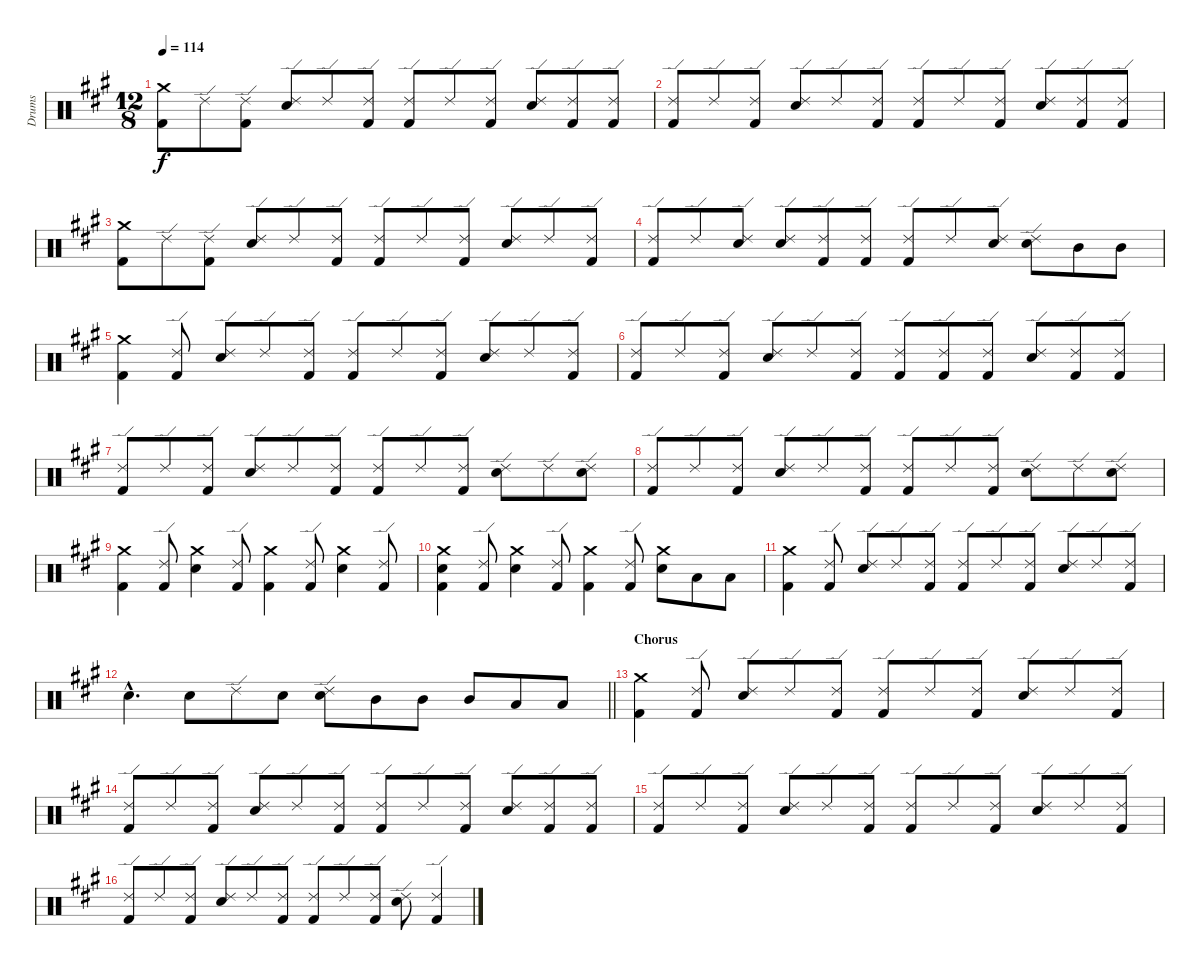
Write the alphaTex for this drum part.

\track ("Drums" "Drums") {instrument percussion}
\staff {score}
\articulation defaults
\ts (12 8)
\tempo 114
\clef neutral
\ks a
("Crash medium (hit)" "Kick (hit) 2").8{dy f} "Ride (edge) 2".8 ("Ride (edge) 2" "Kick (hit) 2").8 ("Ride (edge) 2" "Snare (hit) 2").8 "Ride (edge) 2".8 ("Ride (edge) 2" "Kick (hit) 2").8 ("Ride (edge) 2" "Kick (hit) 2").8 "Ride (edge) 2".8 ("Ride (edge) 2" "Kick (hit) 2").8 ("Ride (edge) 2" "Snare (hit) 2").8 ("Ride (edge) 2" "Kick (hit) 2").8 ("Ride (edge) 2" "Kick (hit) 2").8 |
("Ride (edge) 2" "Kick (hit) 2").8 "Ride (edge) 2".8 ("Ride (edge) 2" "Kick (hit) 2").8 ("Ride (edge) 2" "Snare (hit) 2").8 "Ride (edge) 2".8 ("Ride (edge) 2" "Kick (hit) 2").8 ("Ride (edge) 2" "Kick (hit) 2").8 "Ride (edge) 2".8 ("Ride (edge) 2" "Kick (hit) 2").8 ("Ride (edge) 2" "Snare (hit) 2").8 ("Ride (edge) 2" "Kick (hit) 2").8 ("Ride (edge) 2" "Kick (hit) 2").8 |
("Crash medium (hit)" "Kick (hit) 2").8 "Ride (edge) 2".8 ("Ride (edge) 2" "Kick (hit) 2").8 ("Ride (edge) 2" "Snare (hit) 2").8 "Ride (edge) 2".8 ("Ride (edge) 2" "Kick (hit) 2").8 ("Ride (edge) 2" "Kick (hit) 2").8 "Ride (edge) 2".8 ("Ride (edge) 2" "Kick (hit) 2").8 ("Ride (edge) 2" "Snare (hit) 2").8 "Ride (edge) 2".8 ("Ride (edge) 2" "Kick (hit) 2").8 |
("Ride (edge) 2" "Kick (hit) 2").8 "Ride (edge) 2".8 ("Ride (edge) 2" "Snare (hit) 2").8 ("Ride (edge) 2" "Snare (hit) 2").8 ("Ride (edge) 2" "Kick (hit) 2").8 ("Ride (edge) 2" "Kick (hit) 2").8 ("Ride (edge) 2" "Kick (hit) 2").8 "Ride (edge) 2".8 ("Ride (edge) 2" "Snare (hit) 2").8 ("Ride (edge) 2" "Snare (hit) 2").8 "Mid Tom (hit)".8 "Mid Tom (hit)".8 |
("Crash medium (hit)" "Kick (hit) 2").4 ("Ride (edge) 2" "Kick (hit) 2").8 ("Ride (edge) 2" "Snare (hit) 2").8 "Ride (edge) 2".8 ("Ride (edge) 2" "Kick (hit) 2").8 ("Ride (edge) 2" "Kick (hit) 2").8 "Ride (edge) 2".8 ("Ride (edge) 2" "Kick (hit) 2").8 ("Ride (edge) 2" "Snare (hit) 2").8 "Ride (edge) 2".8 ("Ride (edge) 2" "Kick (hit) 2").8 |
("Ride (edge) 2" "Kick (hit) 2").8 "Ride (edge) 2".8 ("Ride (edge) 2" "Kick (hit) 2").8 ("Ride (edge) 2" "Snare (hit) 2").8 "Ride (edge) 2".8 ("Ride (edge) 2" "Kick (hit) 2").8 ("Ride (edge) 2" "Kick (hit) 2").8 ("Ride (edge) 2" "Kick (hit) 2").8 ("Ride (edge) 2" "Kick (hit) 2").8 ("Ride (edge) 2" "Snare (hit) 2").8 ("Ride (edge) 2" "Kick (hit) 2").8 ("Ride (edge) 2" "Kick (hit) 2").8 |
("Ride (edge) 2" "Kick (hit) 2").8 "Ride (edge) 2".8 ("Ride (edge) 2" "Kick (hit) 2").8 ("Ride (edge) 2" "Snare (hit) 2").8 "Ride (edge) 2".8 ("Ride (edge) 2" "Kick (hit) 2").8 ("Ride (edge) 2" "Kick (hit) 2").8 "Ride (edge) 2".8 ("Ride (edge) 2" "Kick (hit) 2").8 ("Ride (edge) 2" "Snare (hit) 2").8 "Ride (edge) 2".8 ("Ride (edge) 2" "Snare (hit) 2").8 |
("Ride (edge) 2" "Kick (hit) 2").8 "Ride (edge) 2".8 ("Ride (edge) 2" "Kick (hit) 2").8 ("Ride (edge) 2" "Snare (hit) 2").8 "Ride (edge) 2".8 ("Ride (edge) 2" "Kick (hit) 2").8 ("Ride (edge) 2" "Kick (hit) 2").8 "Ride (edge) 2".8 ("Ride (edge) 2" "Kick (hit) 2").8 ("Ride (edge) 2" "Snare (hit) 2").8 "Ride (edge) 2".8 ("Ride (edge) 2" "Snare (hit) 2").8 |
("Crash medium (hit)" "Kick (hit) 2").4 ("Ride (edge) 2" "Kick (hit) 2").8 ("Crash medium (hit)" "Snare (hit) 2").4 ("Ride (edge) 2" "Kick (hit) 2").8 ("Crash medium (hit)" "Kick (hit) 2").4 ("Ride (edge) 2" "Kick (hit) 2").8 ("Crash medium (hit)" "Snare (hit) 2").4 ("Ride (edge) 2" "Kick (hit) 2").8 |
("Crash medium (hit)" "Snare (hit) 2" "Kick (hit) 2").4 ("Ride (edge) 2" "Kick (hit) 2").8 ("Crash medium (hit)" "Snare (hit) 2").4 ("Ride (edge) 2" "Kick (hit) 2").8 ("Crash medium (hit)" "Kick (hit) 2").4 ("Ride (edge) 2" "Kick (hit) 2").8 ("Crash medium (hit)" "Snare (hit) 2").8 "Low Tom (hit)".8 "Low Tom (hit)".8 |
("Crash medium (hit)" "Kick (hit) 2").4 ("Ride (edge) 2" "Kick (hit) 2").8 ("Ride (edge) 2" "Snare (hit) 2").8 "Ride (edge) 2".8 ("Ride (edge) 2" "Kick (hit) 2").8 ("Ride (edge) 2" "Kick (hit) 2").8 "Ride (edge) 2".8 ("Ride (edge) 2" "Kick (hit) 2").8 ("Ride (edge) 2" "Snare (hit) 2").8 "Ride (edge) 2".8 ("Ride (edge) 2" "Kick (hit) 2").8 |
\barLineRight lightlight "Snare (hit) 2"{hac}.4{d} "Snare (hit) 2".8 "Ride (edge) 2".8 "Snare (hit) 2".8
("Ride (edge) 2" "Snare (hit) 2").8 "Mid Tom (hit)".8 "Mid Tom (hit)".8 "Mid Tom (hit)".8 "Low Tom (hit)".8 "Low Tom (hit)".8 |
\section ("" "Chorus")
("Crash medium (hit)" "Kick (hit) 2").4 ("Ride (edge) 2" "Kick (hit) 2").8 ("Ride (edge) 2" "Snare (hit) 2").8 "Ride (edge) 2".8 ("Ride (edge) 2" "Kick (hit) 2").8 ("Ride (edge) 2" "Kick (hit) 2").8 "Ride (edge) 2".8 ("Ride (edge) 2" "Kick (hit) 2").8 ("Ride (edge) 2" "Snare (hit) 2").8 "Ride (edge) 2".8 ("Ride (edge) 2" "Kick (hit) 2").8 |
("Ride (edge) 2" "Kick (hit) 2").8 "Ride (edge) 2".8 ("Ride (edge) 2" "Kick (hit) 2").8 ("Ride (edge) 2" "Snare (hit) 2").8 "Ride (edge) 2".8 ("Ride (edge) 2" "Kick (hit) 2").8 ("Ride (edge) 2" "Kick (hit) 2").8 "Ride (edge) 2".8 ("Ride (edge) 2" "Kick (hit) 2").8 ("Ride (edge) 2" "Snare (hit) 2").8 ("Ride (edge) 2" "Kick (hit) 2").8 ("Ride (edge) 2" "Kick (hit) 2").8 |
("Ride (edge) 2" "Kick (hit) 2").8 "Ride (edge) 2".8 ("Ride (edge) 2" "Kick (hit) 2").8 ("Ride (edge) 2" "Snare (hit) 2").8 "Ride (edge) 2".8 ("Ride (edge) 2" "Kick (hit) 2").8 ("Ride (edge) 2" "Kick (hit) 2").8 "Ride (edge) 2".8 ("Ride (edge) 2" "Kick (hit) 2").8 ("Ride (edge) 2" "Snare (hit) 2").8 "Ride (edge) 2".8 ("Ride (edge) 2" "Kick (hit) 2").8 |
("Ride (edge) 2" "Kick (hit) 2").8 "Ride (edge) 2".8 ("Ride (edge) 2" "Kick (hit) 2").8 ("Ride (edge) 2" "Snare (hit) 2").8 "Ride (edge) 2".8 ("Ride (edge) 2" "Kick (hit) 2").8 ("Ride (edge) 2" "Kick (hit) 2").8 "Ride (edge) 2".8 ("Ride (edge) 2" "Kick (hit) 2").8 ("Ride (edge) 2" "Snare (hit) 2").8 ("Ride (edge) 2" "Kick (hit) 2").4
